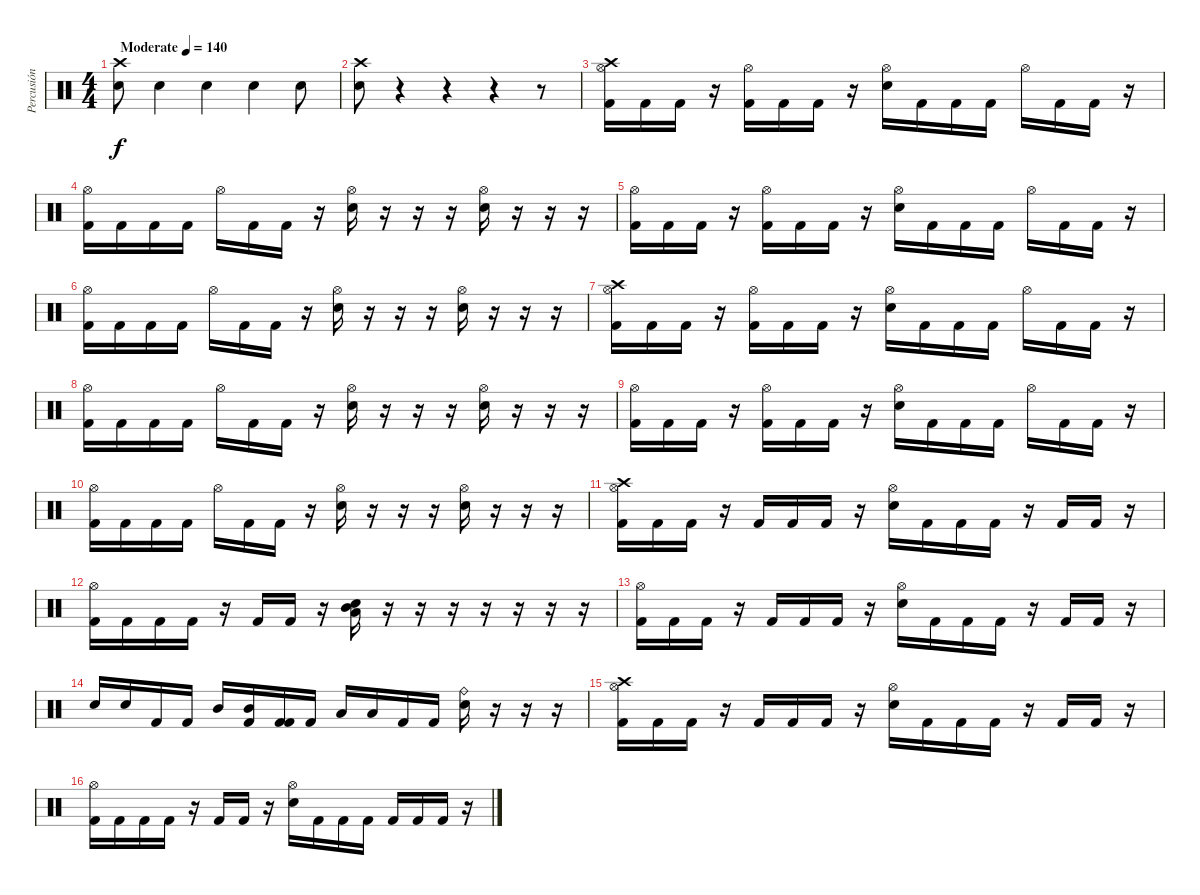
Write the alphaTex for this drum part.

\track ("Percusión" "Percusión") {instrument percussion}
\staff {score}
\articulation defaults
\ts (4 4)
\tempo (140 "Moderate")
\clef neutral
\ks c
("Electric Snare (hit)" "Crash high (hit)").8{dy f} "Electric Snare (hit)".4 "Electric Snare (hit)".4 "Electric Snare (hit)".4 "Electric Snare (hit)".8 |
("Electric Snare (hit)" "Crash high (hit)").8 r.4 r.4 r.4 r.8 |
("Hi-Hat (open)" "Kick (hit) 2" "Crash high (hit)").16 "Kick (hit) 2".16 "Kick (hit) 2".16 r.16 ("Hi-Hat (open)" "Kick (hit) 2").16 "Kick (hit) 2".16 "Kick (hit) 2".16 r.16 ("Hi-Hat (open)" "Electric Snare (hit)").16 "Kick (hit) 2".16 "Kick (hit) 2".16 "Kick (hit) 2".16 "Hi-Hat (open)".16 "Kick (hit) 2".16 "Kick (hit) 2".16 r.16 |
("Hi-Hat (open)" "Kick (hit) 2").16 "Kick (hit) 2".16 "Kick (hit) 2".16 "Kick (hit) 2".16 "Hi-Hat (open)".16 "Kick (hit) 2".16 "Kick (hit) 2".16 r.16 ("Hi-Hat (open)" "Electric Snare (hit)").16 r.16 r.16 r.16 ("Hi-Hat (open)" "Electric Snare (hit)").16 r.16 r.16 r.16 |
("Hi-Hat (open)" "Kick (hit) 2").16 "Kick (hit) 2".16 "Kick (hit) 2".16 r.16 ("Hi-Hat (open)" "Kick (hit) 2").16 "Kick (hit) 2".16 "Kick (hit) 2".16 r.16 ("Hi-Hat (open)" "Electric Snare (hit)").16 "Kick (hit) 2".16 "Kick (hit) 2".16 "Kick (hit) 2".16 "Hi-Hat (open)".16 "Kick (hit) 2".16 "Kick (hit) 2".16 r.16 |
("Hi-Hat (open)" "Kick (hit) 2").16 "Kick (hit) 2".16 "Kick (hit) 2".16 "Kick (hit) 2".16 "Hi-Hat (open)".16 "Kick (hit) 2".16 "Kick (hit) 2".16 r.16 ("Hi-Hat (open)" "Electric Snare (hit)").16 r.16 r.16 r.16 ("Hi-Hat (open)" "Electric Snare (hit)").16 r.16 r.16 r.16 |
("Hi-Hat (open)" "Kick (hit) 2" "Crash high (hit)").16 "Kick (hit) 2".16 "Kick (hit) 2".16 r.16 ("Hi-Hat (open)" "Kick (hit) 2").16 "Kick (hit) 2".16 "Kick (hit) 2".16 r.16 ("Hi-Hat (open)" "Electric Snare (hit)").16 "Kick (hit) 2".16 "Kick (hit) 2".16 "Kick (hit) 2".16 "Hi-Hat (open)".16 "Kick (hit) 2".16 "Kick (hit) 2".16 r.16 |
("Hi-Hat (open)" "Kick (hit) 2").16 "Kick (hit) 2".16 "Kick (hit) 2".16 "Kick (hit) 2".16 "Hi-Hat (open)".16 "Kick (hit) 2".16 "Kick (hit) 2".16 r.16 ("Hi-Hat (open)" "Electric Snare (hit)").16 r.16 r.16 r.16 ("Hi-Hat (open)" "Electric Snare (hit)").16 r.16 r.16 r.16 |
("Hi-Hat (open)" "Kick (hit) 2").16 "Kick (hit) 2".16 "Kick (hit) 2".16 r.16 ("Hi-Hat (open)" "Kick (hit) 2").16 "Kick (hit) 2".16 "Kick (hit) 2".16 r.16 ("Hi-Hat (open)" "Electric Snare (hit)").16 "Kick (hit) 2".16 "Kick (hit) 2".16 "Kick (hit) 2".16 "Hi-Hat (open)".16 "Kick (hit) 2".16 "Kick (hit) 2".16 r.16 |
("Hi-Hat (open)" "Kick (hit) 2").16 "Kick (hit) 2".16 "Kick (hit) 2".16 "Kick (hit) 2".16 "Hi-Hat (open)".16 "Kick (hit) 2".16 "Kick (hit) 2".16 r.16 ("Hi-Hat (open)" "Electric Snare (hit)").16 r.16 r.16 r.16 ("Hi-Hat (open)" "Electric Snare (hit)").16 r.16 r.16 r.16 |
("Hi-Hat (open)" "Kick (hit) 2" "Crash high (hit)").16 "Kick (hit) 2".16 "Kick (hit) 2".16 r.16 "Kick (hit) 2".16 "Kick (hit) 2".16 "Kick (hit) 2".16 r.16 ("Hi-Hat (open)" "Electric Snare (hit)").16 "Kick (hit) 2".16 "Kick (hit) 2".16 "Kick (hit) 2".16 r.16 "Kick (hit) 2".16 "Kick (hit) 2".16 r.16 |
("Hi-Hat (open)" "Kick (hit) 2").16 "Kick (hit) 2".16 "Kick (hit) 2".16 "Kick (hit) 2".16 r.16 "Kick (hit) 2".16 "Kick (hit) 2".16 r.16 ("Electric Snare (hit)" "Low Tom (hit)" "Mid Tom (hit)").16 r.16 r.16 r.16 r.16 r.16 r.16 r.16 |
("Hi-Hat (open)" "Kick (hit) 2").16 "Kick (hit) 2".16 "Kick (hit) 2".16 r.16 "Kick (hit) 2".16 "Kick (hit) 2".16 "Kick (hit) 2".16 r.16 ("Hi-Hat (open)" "Electric Snare (hit)").16 "Kick (hit) 2".16 "Kick (hit) 2".16 "Kick (hit) 2".16 r.16 "Kick (hit) 2".16 "Kick (hit) 2".16 r.16 |
"Electric Snare (hit)".16 "Electric Snare (hit)".16 "Kick (hit) 2".16 "Kick (hit) 2".16 "Mid Tom (hit)".16 ("Kick (hit) 2" "Mid Tom (hit)").16 ("Kick (hit) 2" "Kick (hit) 2").16 "Kick (hit) 2".16 "Low Tom (hit)".16 "Low Tom (hit)".16 "Kick (hit) 2".16 "Kick (hit) 2".16 ("Electric Snare (hit)" "Ride (bell)").16 r.16 r.16 r.16 |
("Hi-Hat (open)" "Kick (hit) 2" "Crash high (hit)").16 "Kick (hit) 2".16 "Kick (hit) 2".16 r.16 "Kick (hit) 2".16 "Kick (hit) 2".16 "Kick (hit) 2".16 r.16 ("Hi-Hat (open)" "Electric Snare (hit)").16 "Kick (hit) 2".16 "Kick (hit) 2".16 "Kick (hit) 2".16 r.16 "Kick (hit) 2".16 "Kick (hit) 2".16 r.16 |
("Hi-Hat (open)" "Kick (hit) 2").16 "Kick (hit) 2".16 "Kick (hit) 2".16 "Kick (hit) 2".16 r.16 "Kick (hit) 2".16 "Kick (hit) 2".16 r.16 ("Hi-Hat (open)" "Electric Snare (hit)").16 "Kick (hit) 2".16 "Kick (hit) 2".16 "Kick (hit) 2".16 "Kick (hit) 2".16 "Kick (hit) 2".16 "Kick (hit) 2".16 r.16
